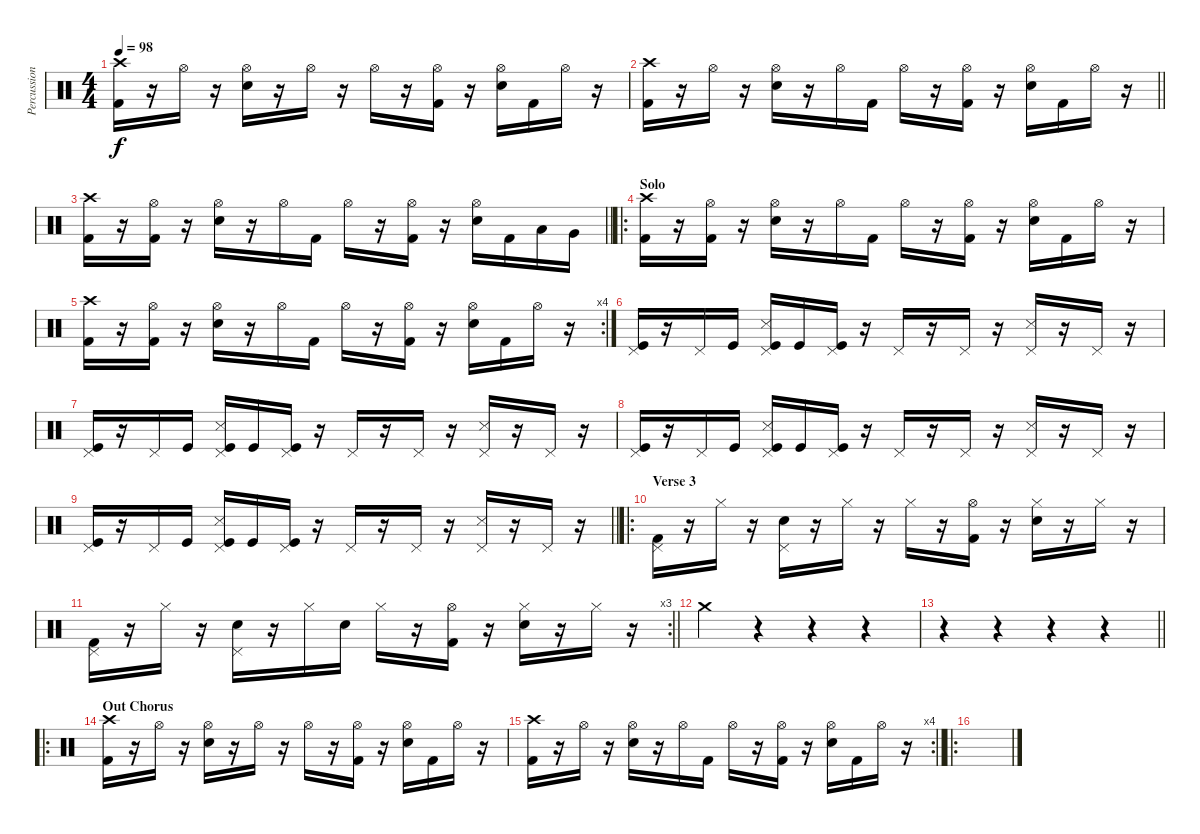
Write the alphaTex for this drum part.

\track ("Percussion" "Percussion") {instrument percussion}
\staff {score}
\articulation defaults
\ts (4 4)
\tempo 98
\clef neutral
\ks c
("Crash high (hit)" "Kick (hit) 2").16{dy f} r.16 "Hi-Hat (open)".16 r.16 ("Hi-Hat (open)" "Snare (hit) 2").16 r.16 "Hi-Hat (open)".16 r.16 "Hi-Hat (open)".16 r.16 ("Hi-Hat (open)" "Kick (hit) 2").16 r.16 ("Hi-Hat (open)" "Snare (hit) 2").16 "Kick (hit) 2".16 "Hi-Hat (open)".16 r.16 |
\barLineRight lightlight
("Crash high (hit)" "Kick (hit) 2").16 r.16 "Hi-Hat (open)".16 r.16 ("Hi-Hat (open)" "Snare (hit) 2").16 r.16 "Hi-Hat (open)".16 "Kick (hit) 2".16 "Hi-Hat (open)".16 r.16 ("Hi-Hat (open)" "Kick (hit) 2").16 r.16 ("Hi-Hat (open)" "Snare (hit) 2").16 "Kick (hit) 2".16 "Hi-Hat (open)".16 r.16 |
\barLineRight lightlight
("Crash high (hit)" "Kick (hit) 2").16 r.16 ("Hi-Hat (open)" "Kick (hit) 2").16 r.16 ("Hi-Hat (open)" "Snare (hit) 2").16 r.16 "Hi-Hat (open)".16 "Kick (hit) 2".16 "Hi-Hat (open)".16 r.16 ("Hi-Hat (open)" "Kick (hit) 2").16 r.16 ("Hi-Hat (open)" "Snare (hit) 2").16 "Kick (hit) 2".16 "Low Tom (hit)".16 "Very Low Tom (hit)".16 |
\ro
\section ("" "Solo")
("Crash high (hit)" "Kick (hit) 2").16 r.16 ("Hi-Hat (open)" "Kick (hit) 2").16 r.16 ("Hi-Hat (open)" "Snare (hit) 2").16 r.16 "Hi-Hat (open)".16 "Kick (hit) 2".16 "Hi-Hat (open)".16 r.16 ("Hi-Hat (open)" "Kick (hit) 2").16 r.16 ("Hi-Hat (open)" "Snare (hit) 2").16 "Kick (hit) 2".16 "Hi-Hat (open)".16 r.16 |
\rc 4
("Crash high (hit)" "Kick (hit) 2").16 r.16 ("Hi-Hat (open)" "Kick (hit) 2").16 r.16 ("Hi-Hat (open)" "Snare (hit) 2").16 r.16 "Hi-Hat (open)".16 "Kick (hit) 2".16 "Hi-Hat (open)".16 r.16 ("Hi-Hat (open)" "Kick (hit) 2").16 r.16 ("Hi-Hat (open)" "Snare (hit) 2").16 "Kick (hit) 2".16 "Hi-Hat (open)".16 r.16 |
("Pedal Hi-Hat (hit)" "Kick (hit)").16 r.16 "Pedal Hi-Hat (hit)".16 "Kick (hit)".16 ("Pedal Hi-Hat (hit)" "Snare (side stick) 3" "Kick (hit)").16 "Kick (hit)".16 ("Pedal Hi-Hat (hit)" "Kick (hit)").16 r.16 "Pedal Hi-Hat (hit)".16 r.16 "Pedal Hi-Hat (hit)".16 r.16 ("Pedal Hi-Hat (hit)" "Snare (side stick) 3").16 r.16 "Pedal Hi-Hat (hit)".16 r.16 |
("Pedal Hi-Hat (hit)" "Kick (hit)").16 r.16 "Pedal Hi-Hat (hit)".16 "Kick (hit)".16 ("Pedal Hi-Hat (hit)" "Snare (side stick) 3" "Kick (hit)").16 "Kick (hit)".16 ("Pedal Hi-Hat (hit)" "Kick (hit)").16 r.16 "Pedal Hi-Hat (hit)".16 r.16 "Pedal Hi-Hat (hit)".16 r.16 ("Pedal Hi-Hat (hit)" "Snare (side stick) 3").16 r.16 "Pedal Hi-Hat (hit)".16 r.16 |
("Pedal Hi-Hat (hit)" "Kick (hit)").16 r.16 "Pedal Hi-Hat (hit)".16 "Kick (hit)".16 ("Pedal Hi-Hat (hit)" "Snare (side stick) 3" "Kick (hit)").16 "Kick (hit)".16 ("Pedal Hi-Hat (hit)" "Kick (hit)").16 r.16 "Pedal Hi-Hat (hit)".16 r.16 "Pedal Hi-Hat (hit)".16 r.16 ("Pedal Hi-Hat (hit)" "Snare (side stick) 3").16 r.16 "Pedal Hi-Hat (hit)".16 r.16 |
\barLineRight lightlight
("Pedal Hi-Hat (hit)" "Kick (hit)").16 r.16 "Pedal Hi-Hat (hit)".16 "Kick (hit)".16 ("Pedal Hi-Hat (hit)" "Snare (side stick) 3" "Kick (hit)").16 "Kick (hit)".16 ("Pedal Hi-Hat (hit)" "Kick (hit)").16 r.16 "Pedal Hi-Hat (hit)".16 r.16 "Pedal Hi-Hat (hit)".16 r.16 ("Pedal Hi-Hat (hit)" "Snare (side stick) 3").16 r.16 "Pedal Hi-Hat (hit)".16 r.16 |
\ro
\section ("" "Verse 3")
("Pedal Hi-Hat (hit)" "Kick (hit) 2").16 r.16 "Hi-Hat (closed)".16 r.16 ("Pedal Hi-Hat (hit)" "Snare (hit) 2").16 r.16 "Hi-Hat (closed)".16 r.16 "Hi-Hat (closed)".16 r.16 ("Hi-Hat (open)" "Kick (hit) 2").16 r.16 ("Hi-Hat (closed)" "Snare (hit) 2").16 r.16 "Hi-Hat (closed)".16 r.16 |
\rc 3
\barLineRight lightlight
("Pedal Hi-Hat (hit)" "Kick (hit) 2").16 r.16 "Hi-Hat (closed)".16 r.16 ("Pedal Hi-Hat (hit)" "Snare (hit) 2").16 r.16 "Hi-Hat (closed)".16 "Snare (hit) 2".16 "Hi-Hat (closed)".16 r.16 ("Hi-Hat (open)" "Kick (hit) 2").16 r.16 ("Hi-Hat (closed)" "Snare (hit) 2").16 r.16 "Hi-Hat (closed)".16 r.16 |
"Crash medium (hit)".4 r.4 r.4 r.4 |
\barLineRight lightlight
r.4 r.4 r.4 r.4 |
\ro
\section ("" "Out Chorus")
("Crash high (hit)" "Kick (hit) 2").16 r.16 "Hi-Hat (open)".16 r.16 ("Hi-Hat (open)" "Snare (hit) 2").16 r.16 "Hi-Hat (open)".16 r.16 "Hi-Hat (open)".16 r.16 ("Hi-Hat (open)" "Kick (hit) 2").16 r.16 ("Hi-Hat (open)" "Snare (hit) 2").16 "Kick (hit) 2".16 "Hi-Hat (open)".16 r.16 |
\rc 4
\barLineRight lightlight
("Crash high (hit)" "Kick (hit) 2").16 r.16 "Hi-Hat (open)".16 r.16 ("Hi-Hat (open)" "Snare (hit) 2").16 r.16 "Hi-Hat (open)".16 "Kick (hit) 2".16 "Hi-Hat (open)".16 r.16 ("Hi-Hat (open)" "Kick (hit) 2").16 r.16 ("Hi-Hat (open)" "Snare (hit) 2").16 "Kick (hit) 2".16 "Hi-Hat (open)".16 r.16 |
\ro
